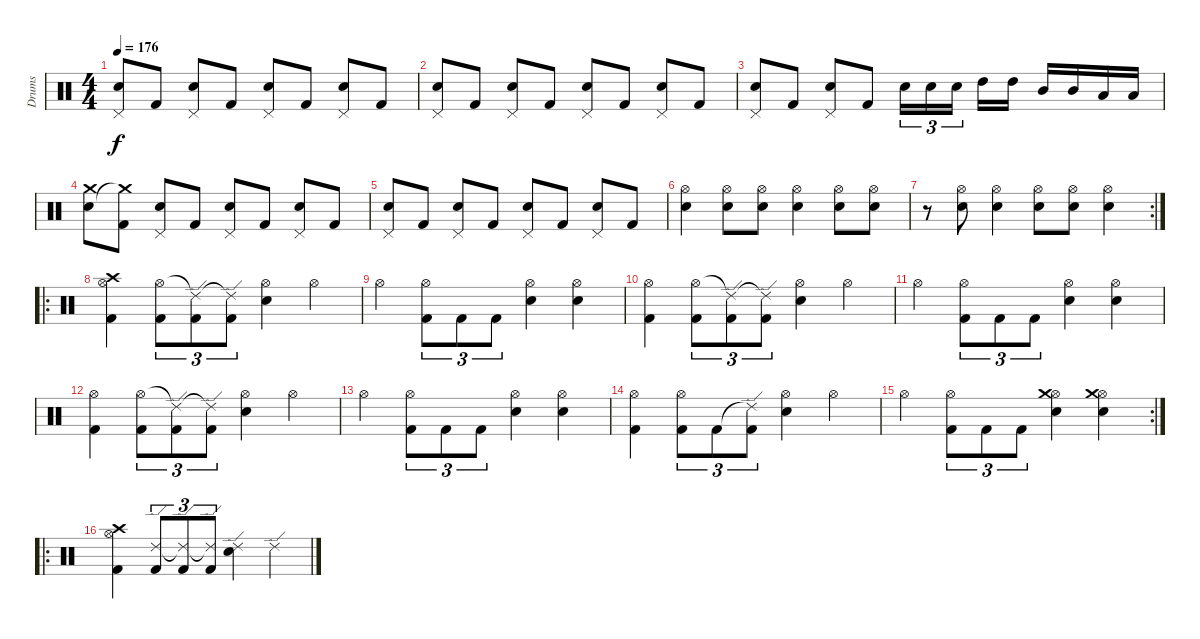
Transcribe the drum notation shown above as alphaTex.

\track ("Drums" "Drums") {instrument percussion}
\staff {score}
\articulation defaults
\ts (4 4)
\tempo 176
\clef neutral
\ks c
("Pedal Hi-Hat (hit)" "Snare (hit) 2").8{dy f} "Kick (hit) 2".8 ("Pedal Hi-Hat (hit)" "Snare (hit) 2").8 "Kick (hit) 2".8 ("Pedal Hi-Hat (hit)" "Snare (hit) 2").8 "Kick (hit) 2".8 ("Pedal Hi-Hat (hit)" "Snare (hit) 2").8 "Kick (hit) 2".8 |
("Pedal Hi-Hat (hit)" "Snare (hit) 2").8 "Kick (hit) 2".8 ("Pedal Hi-Hat (hit)" "Snare (hit) 2").8 "Kick (hit) 2".8 ("Pedal Hi-Hat (hit)" "Snare (hit) 2").8 "Kick (hit) 2".8 ("Pedal Hi-Hat (hit)" "Snare (hit) 2").8 "Kick (hit) 2".8 |
("Pedal Hi-Hat (hit)" "Snare (hit) 2").8 "Kick (hit) 2".8 ("Pedal Hi-Hat (hit)" "Snare (hit) 2").8 "Kick (hit) 2".8 "Electric Snare (hit)".16{tu (3 2)} "Electric Snare (hit)".16{tu (3 2)} "Electric Snare (hit)".16{tu (3 2)} "High Tom (hit)".16 "High Tom (hit)".16 "Mid Tom (hit)".16 "Mid Tom (hit)".16 "Low Tom (hit)".16 "Low Tom (hit)".16 |
("Crash medium (hit)" "Snare (hit) 2").8 ("Kick (hit) 2" "Crash medium (hit)"{t}).8 ("Pedal Hi-Hat (hit)" "Snare (hit) 2").8 "Kick (hit) 2".8 ("Pedal Hi-Hat (hit)" "Snare (hit) 2").8 "Kick (hit) 2".8 ("Pedal Hi-Hat (hit)" "Snare (hit) 2").8 "Kick (hit) 2".8 |
("Pedal Hi-Hat (hit)" "Snare (hit) 2").8 "Kick (hit) 2".8 ("Pedal Hi-Hat (hit)" "Snare (hit) 2").8 "Kick (hit) 2".8 ("Pedal Hi-Hat (hit)" "Snare (hit) 2").8 "Kick (hit) 2".8 ("Pedal Hi-Hat (hit)" "Snare (hit) 2").8 "Kick (hit) 2".8 |
("Snare (hit) 2" "Hi-Hat (open)").4 ("Snare (hit) 2" "Hi-Hat (open)").8 ("Snare (hit) 2" "Hi-Hat (open)").8 ("Snare (hit) 2" "Hi-Hat (open)").4 ("Snare (hit) 2" "Hi-Hat (open)").8 ("Snare (hit) 2" "Hi-Hat (open)").8 |
\rc 2
r.8 ("Snare (hit) 2" "Hi-Hat (open)").8 ("Snare (hit) 2" "Hi-Hat (open)").4 ("Snare (hit) 2" "Hi-Hat (open)").8 ("Snare (hit) 2" "Hi-Hat (open)").8 ("Snare (hit) 2" "Hi-Hat (open)").4 |
\ro
("Hi-Hat (open)" "Kick (hit) 2" "Crash high (hit)").4 ("Hi-Hat (open)" "Kick (hit) 2").8{tu (3 2)} ("Ride (edge) 2"{t} "Kick (hit) 2").8{tu (3 2)} ("Ride (edge) 2"{t} "Kick (hit) 2").8{tu (3 2)} ("Hi-Hat (open)" "Snare (hit) 2").4 "Hi-Hat (open)".4 |
"Hi-Hat (open)".4 ("Hi-Hat (open)" "Kick (hit) 2").8{tu (3 2)} "Kick (hit) 2".8{tu (3 2)} "Kick (hit) 2".8{tu (3 2)} ("Hi-Hat (open)" "Snare (hit) 2").4 ("Hi-Hat (open)" "Snare (hit) 2").4 |
("Hi-Hat (open)" "Kick (hit) 2").4 ("Hi-Hat (open)" "Kick (hit) 2").8{tu (3 2)} ("Ride (edge) 2"{t} "Kick (hit) 2").8{tu (3 2)} ("Ride (edge) 2"{t} "Kick (hit) 2").8{tu (3 2)} ("Hi-Hat (open)" "Snare (hit) 2").4 "Hi-Hat (open)".4 |
"Hi-Hat (open)".4 ("Hi-Hat (open)" "Kick (hit) 2").8{tu (3 2)} "Kick (hit) 2".8{tu (3 2)} "Kick (hit) 2".8{tu (3 2)} ("Hi-Hat (open)" "Snare (hit) 2").4 ("Hi-Hat (open)" "Snare (hit) 2").4 |
("Hi-Hat (open)" "Kick (hit) 2").4 ("Hi-Hat (open)" "Kick (hit) 2").8{tu (3 2)} ("Ride (edge) 2"{t} "Kick (hit) 2").8{tu (3 2)} ("Ride (edge) 2"{t} "Kick (hit) 2").8{tu (3 2)} ("Hi-Hat (open)" "Snare (hit) 2").4 "Hi-Hat (open)".4 |
"Hi-Hat (open)".4 ("Hi-Hat (open)" "Kick (hit) 2").8{tu (3 2)} "Kick (hit) 2".8{tu (3 2)} "Kick (hit) 2".8{tu (3 2)} ("Hi-Hat (open)" "Snare (hit) 2").4 ("Hi-Hat (open)" "Snare (hit) 2").4 |
("Hi-Hat (open)" "Kick (hit) 2").4 ("Hi-Hat (open)" "Kick (hit) 2").8{tu (3 2)} "Kick (hit) 2".8{tu (3 2)} ("Ride (edge) 2"{t} "Kick (hit) 2").8{tu (3 2)} ("Hi-Hat (open)" "Snare (hit) 2").4 "Hi-Hat (open)".4 |
\rc 2 "Hi-Hat (open)".4
("Hi-Hat (open)" "Kick (hit) 2").8{tu (3 2)} "Kick (hit) 2".8{tu (3 2)} "Kick (hit) 2".8{tu (3 2)} ("Hi-Hat (open)" "Snare (hit) 2" "Crash medium (hit)").4 ("Hi-Hat (open)" "Snare (hit) 2" "Crash medium (hit)").4 |
\ro
("Hi-Hat (open)" "Kick (hit) 2" "Crash high (hit)").4 ("Ride (edge) 2" "Kick (hit) 2").8{tu (3 2)} ("Ride (edge) 2"{t} "Kick (hit) 2").8{tu (3 2)} ("Ride (edge) 2"{t} "Kick (hit) 2").8{tu (3 2)} ("Ride (edge) 2" "Electric Snare (hit)").4 "Ride (edge) 2".4
